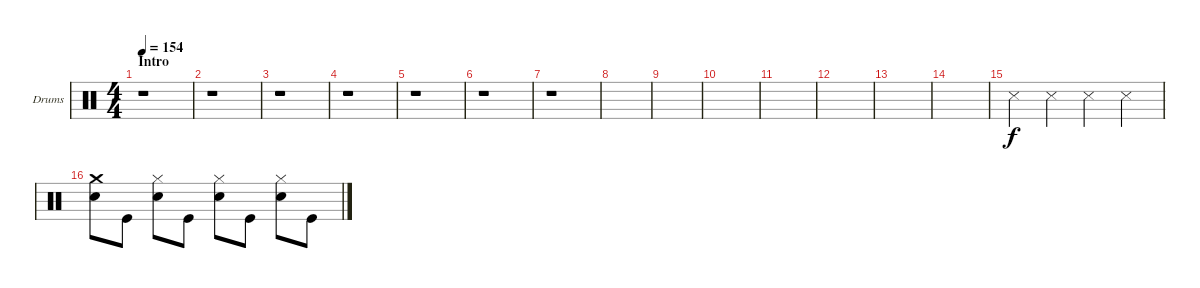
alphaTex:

\defaultSystemsLayout 4
\bracketExtendMode groupsimilarinstruments
\firstSystemTrackNameOrientation horizontal
\otherSystemsTrackNameOrientation horizontal
\track ("Drumkit" "Drums") {instrument percussion}
\staff {score}
\articulation defaults
\ts (4 4)
\section ("" "Intro")
\tempo 154
\clef neutral
\ks c
r.1{dy f} |
r.1 |
r.1 |
r.1 |
r.1 |
r.1 |
r.1 |
|
|
|
|
|
|
|
"Snare (side stick) 3".4 "Snare (side stick) 3".4 "Snare (side stick) 3".4 "Snare (side stick) 3".4 |
("Crash medium (hit)" "Snare (hit) 2").8 "Kick (hit)".8 ("Hi-Hat (closed)" "Snare (hit) 2").8 "Kick (hit)".8 ("Hi-Hat (closed)" "Snare (hit) 2").8 "Kick (hit)".8 ("Hi-Hat (closed)" "Snare (hit) 2").8 "Kick (hit)".8
